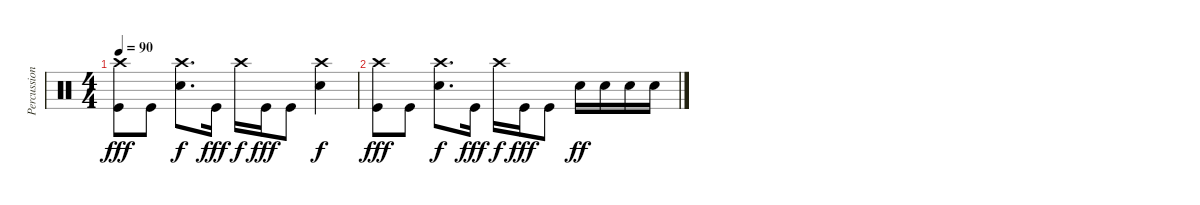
\track ("Percussion" "Percussion") {instrument percussion}
\staff {score}
\articulation defaults
\ts (4 4)
\tempo 90
\clef neutral
\ks c
("Crash high (hit)" "Kick (hit)").8{dy fff} "Kick (hit)".8 ("Crash high (hit)" "Electric Snare (hit)").8{d dy f} "Kick (hit)".16{dy fff} "Crash high (hit)".16{dy f} "Kick (hit)".16{dy fff} "Kick (hit)".8 ("Crash high (hit)" "Electric Snare (hit)").4{dy f} |
("Crash high (hit)" "Kick (hit)").8{dy fff} "Kick (hit)".8 ("Crash high (hit)" "Electric Snare (hit)").8{d dy f} "Kick (hit)".16{dy fff} "Crash high (hit)".16{dy f} "Kick (hit)".16{dy fff} "Kick (hit)".8 "Electric Snare (hit)".16{dy ff} "Electric Snare (hit)".16 "Electric Snare (hit)".16 "Electric Snare (hit)".16
